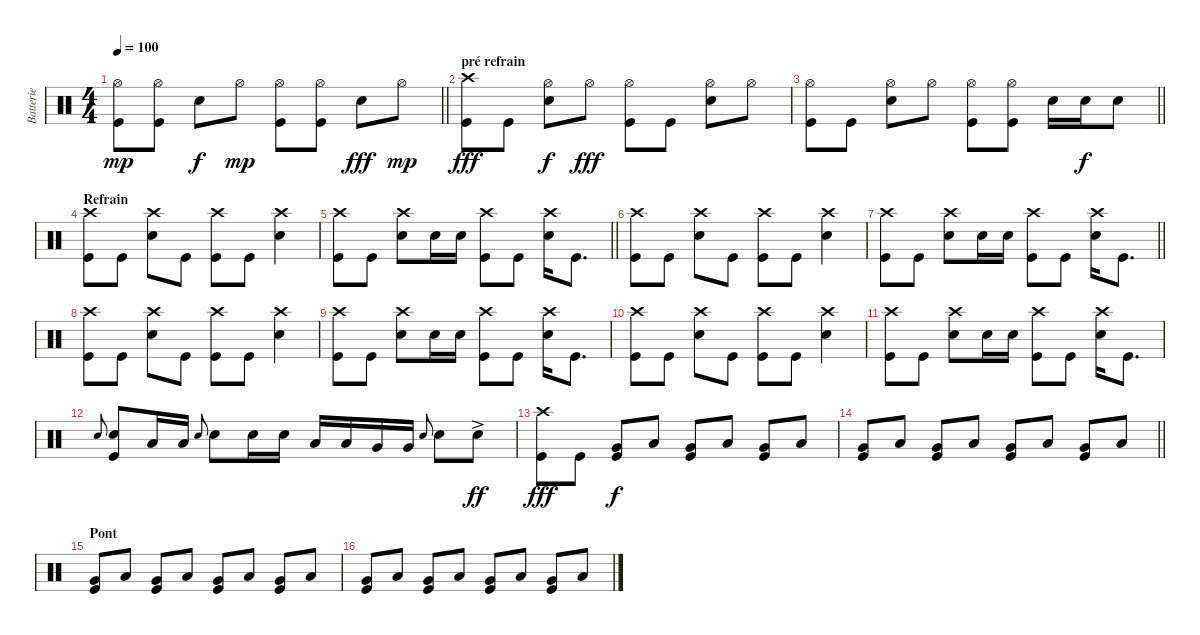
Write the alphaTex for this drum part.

\track ("Batterie" "Batterie") {instrument percussion}
\staff {score}
\articulation defaults
\ts (4 4)
\tempo 100
\clef neutral
\barLineRight lightlight
\ks c
("Kick (hit)" "Hi-Hat (open)").8{dy mp} ("Kick (hit)" "Hi-Hat (open)").8 "Electric Snare (hit)".8{dy f} "Hi-Hat (open)".8{dy mp} ("Kick (hit)" "Hi-Hat (open)").8 ("Kick (hit)" "Hi-Hat (open)").8 "Snare (hit) 2".8{dy fff} "Hi-Hat (open)".8{dy mp} |
\section ("" "pré refrain")
("Kick (hit)" "Crash high (hit)").8{dy fff} "Kick (hit)".8 ("Hi-Hat (open)" "Electric Snare (hit)").8{dy f} "Hi-Hat (open)".8{dy fff} ("Kick (hit)" "Hi-Hat (open)").8 "Kick (hit)".8 ("Snare (hit) 2" "Hi-Hat (open)").8 "Hi-Hat (open)".8 |
\barLineRight lightlight
("Kick (hit)" "Hi-Hat (open)").8 "Kick (hit)".8 ("Snare (hit) 2" "Hi-Hat (open)").8 "Hi-Hat (open)".8 ("Kick (hit)" "Hi-Hat (open)").8 ("Kick (hit)" "Hi-Hat (open)").8 "Snare (hit) 2".16 "Snare (hit) 2".16{dy f} "Snare (hit) 2".8 |
\section ("" "Refrain")
("Crash high (hit)" "Kick (hit)").8 "Kick (hit)".8 ("Snare (hit) 2" "Crash high (hit)").8 "Kick (hit)".8 ("Crash high (hit)" "Kick (hit)").8 "Kick (hit)".8 ("Snare (hit) 2" "Crash high (hit)").4 |
\barLineRight lightlight
("Crash high (hit)" "Kick (hit)").8 "Kick (hit)".8 ("Snare (hit) 2" "Crash high (hit)").8 "Snare (hit) 2".16 "Snare (hit) 2".16 ("Crash high (hit)" "Kick (hit)").8 "Kick (hit)".8 ("Snare (hit) 2" "Crash high (hit)").16 "Kick (hit)".8{d} |
("Crash high (hit)" "Kick (hit)").8 "Kick (hit)".8 ("Snare (hit) 2" "Crash high (hit)").8 "Kick (hit)".8 ("Crash high (hit)" "Kick (hit)").8 "Kick (hit)".8 ("Snare (hit) 2" "Crash high (hit)").4 |
\barLineRight lightlight
("Crash high (hit)" "Kick (hit)").8 "Kick (hit)".8 ("Snare (hit) 2" "Crash high (hit)").8 "Snare (hit) 2".16 "Snare (hit) 2".16 ("Crash high (hit)" "Kick (hit)").8 "Kick (hit)".8 ("Snare (hit) 2" "Crash high (hit)").16 "Kick (hit)".8{d} |
("Crash high (hit)" "Kick (hit)").8 "Kick (hit)".8 ("Snare (hit) 2" "Crash high (hit)").8 "Kick (hit)".8 ("Crash high (hit)" "Kick (hit)").8 "Kick (hit)".8 ("Snare (hit) 2" "Crash high (hit)").4 |
("Crash high (hit)" "Kick (hit)").8 "Kick (hit)".8 ("Snare (hit) 2" "Crash high (hit)").8 "Snare (hit) 2".16 "Snare (hit) 2".16 ("Crash high (hit)" "Kick (hit)").8 "Kick (hit)".8 ("Snare (hit) 2" "Crash high (hit)").16 "Kick (hit)".8{d} |
("Crash high (hit)" "Kick (hit)").8 "Kick (hit)".8 ("Snare (hit) 2" "Crash high (hit)").8 "Kick (hit)".8 ("Crash high (hit)" "Kick (hit)").8 "Kick (hit)".8 ("Snare (hit) 2" "Crash high (hit)").4 |
("Crash high (hit)" "Kick (hit)").8 "Kick (hit)".8 ("Snare (hit) 2" "Crash high (hit)").8 "Snare (hit) 2".16 "Snare (hit) 2".16 ("Crash high (hit)" "Kick (hit)").8 "Kick (hit)".8 ("Snare (hit) 2" "Crash high (hit)").16 "Kick (hit)".8{d} |
"Snare (hit) 2".8{gr onbeat} ("Snare (hit) 2" "Kick (hit)").8 "Low Tom (hit)".16 "Low Tom (hit)".16 "Snare (hit) 2".8{gr onbeat} "Snare (hit) 2".8 "Snare (hit) 2".16 "Snare (hit) 2".16 "Low Tom (hit)".16 "Low Tom (hit)".16 "Very Low Tom (hit)".16 "Very Low Tom (hit)".16 "Snare (hit) 2".8{gr onbeat} "Snare (hit) 2".8 "Snare (hit) 2"{ac}.8{dy ff} |
("Kick (hit)" "Crash high (hit)").8{dy fff} "Kick (hit)".8{volume 10} ("Very Low Tom (hit)" "Kick (hit)").8{dy f} "Low Floor Tom (hit)".8 ("Kick (hit)" "Very Low Tom (hit)").8 "Low Floor Tom (hit)".8 ("Very Low Tom (hit)" "Kick (hit)").8 "Low Floor Tom (hit)".8 |
\barLineRight lightlight
("Very Low Tom (hit)" "Kick (hit)").8 "Low Floor Tom (hit)".8 ("Very Low Tom (hit)" "Kick (hit)").8 "Low Floor Tom (hit)".8 ("Kick (hit)" "Very Low Tom (hit)").8 "Low Floor Tom (hit)".8 ("Very Low Tom (hit)" "Kick (hit)").8 "Low Floor Tom (hit)".8 |
\section ("" "Pont")
("Very Low Tom (hit)" "Kick (hit)").8 "Low Floor Tom (hit)".8 ("Very Low Tom (hit)" "Kick (hit)").8 "Low Floor Tom (hit)".8 ("Kick (hit)" "Very Low Tom (hit)").8 "Low Floor Tom (hit)".8 ("Very Low Tom (hit)" "Kick (hit)").8 "Low Floor Tom (hit)".8 |
("Very Low Tom (hit)" "Kick (hit)").8 "Low Floor Tom (hit)".8 ("Very Low Tom (hit)" "Kick (hit)").8 "Low Floor Tom (hit)".8 ("Kick (hit)" "Very Low Tom (hit)").8 "Low Floor Tom (hit)".8 ("Very Low Tom (hit)" "Kick (hit)").8 "Low Floor Tom (hit)".8
